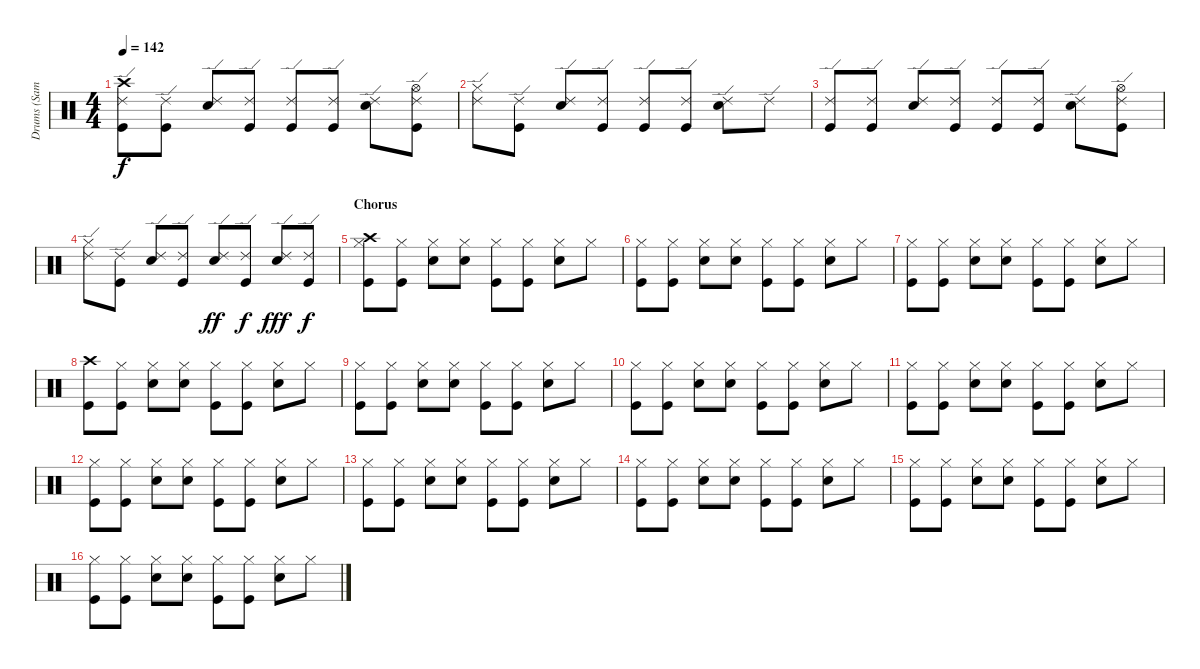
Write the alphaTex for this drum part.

\track ("Drums (Sam)" "Drums (Sam") {instrument percussion}
\staff {score}
\articulation defaults
\ts (4 4)
\tempo 142
\clef neutral
\ks c
("Crash high (hit)" "Ride (edge) 2" "Kick (hit)").8{dy f} ("Ride (edge) 2" "Kick (hit)").8 ("Ride (edge) 2" "Snare (hit) 2").8 ("Ride (edge) 2" "Kick (hit)").8 ("Ride (edge) 2" "Kick (hit)").8 ("Ride (edge) 2" "Kick (hit)").8 ("Ride (edge) 2" "Snare (hit) 2").8 ("Hi-Hat (open)" "Ride (edge) 2" "Kick (hit)").8 |
("Hi-Hat (closed)" "Ride (edge) 2").8 ("Ride (edge) 2" "Kick (hit)").8 ("Ride (edge) 2" "Snare (hit) 2").8 ("Ride (edge) 2" "Kick (hit)").8 ("Ride (edge) 2" "Kick (hit)").8 ("Ride (edge) 2" "Kick (hit)").8 ("Ride (edge) 2" "Snare (hit) 2").8 "Ride (edge) 2".8 |
("Ride (edge) 2" "Kick (hit)").8 ("Ride (edge) 2" "Kick (hit)").8 ("Ride (edge) 2" "Snare (hit) 2").8 ("Ride (edge) 2" "Kick (hit)").8 ("Ride (edge) 2" "Kick (hit)").8 ("Ride (edge) 2" "Kick (hit)").8 ("Ride (edge) 2" "Snare (hit) 2").8 ("Hi-Hat (open)" "Ride (edge) 2" "Kick (hit)").8 |
("Hi-Hat (closed)" "Ride (edge) 2").8 ("Ride (edge) 2" "Kick (hit)").8 ("Ride (edge) 2" "Snare (hit) 2").8 ("Ride (edge) 2" "Kick (hit)").8 ("Ride (edge) 2" "Snare (hit) 2").8{dy ff} ("Ride (edge) 2" "Kick (hit)").8{dy f} ("Ride (edge) 2" "Snare (hit) 2").8{dy fff} ("Ride (edge) 2" "Kick (hit)").8{dy f} |
\section ("" "Chorus")
("Crash high (hit)" "Hi-Hat (closed)" "Kick (hit)").8 ("Hi-Hat (closed)" "Kick (hit)").8 ("Hi-Hat (closed)" "Snare (hit) 2").8 ("Hi-Hat (closed)" "Snare (hit) 2").8 ("Hi-Hat (closed)" "Kick (hit)").8 ("Hi-Hat (closed)" "Kick (hit)").8 ("Hi-Hat (closed)" "Snare (hit) 2").8 "Hi-Hat (closed)".8 |
("Hi-Hat (closed)" "Kick (hit)").8 ("Hi-Hat (closed)" "Kick (hit)").8 ("Hi-Hat (closed)" "Snare (hit) 2").8 ("Hi-Hat (closed)" "Snare (hit) 2").8 ("Hi-Hat (closed)" "Kick (hit)").8 ("Hi-Hat (closed)" "Kick (hit)").8 ("Hi-Hat (closed)" "Snare (hit) 2").8 "Hi-Hat (closed)".8 |
("Hi-Hat (closed)" "Kick (hit)").8 ("Hi-Hat (closed)" "Kick (hit)").8 ("Hi-Hat (closed)" "Snare (hit) 2").8 ("Hi-Hat (closed)" "Snare (hit) 2").8 ("Hi-Hat (closed)" "Kick (hit)").8 ("Hi-Hat (closed)" "Kick (hit)").8 ("Hi-Hat (closed)" "Snare (hit) 2").8 "Hi-Hat (closed)".8 |
("Crash high (hit)" "Kick (hit)").8 ("Hi-Hat (closed)" "Kick (hit)").8 ("Hi-Hat (closed)" "Snare (hit) 2").8 ("Hi-Hat (closed)" "Snare (hit) 2").8 ("Hi-Hat (closed)" "Kick (hit)").8 ("Hi-Hat (closed)" "Kick (hit)").8 ("Hi-Hat (closed)" "Snare (hit) 2").8 "Hi-Hat (closed)".8 |
("Hi-Hat (closed)" "Kick (hit)").8 ("Hi-Hat (closed)" "Kick (hit)").8 ("Hi-Hat (closed)" "Snare (hit) 2").8 ("Hi-Hat (closed)" "Snare (hit) 2").8 ("Hi-Hat (closed)" "Kick (hit)").8 ("Hi-Hat (closed)" "Kick (hit)").8 ("Hi-Hat (closed)" "Snare (hit) 2").8 "Hi-Hat (closed)".8 |
("Hi-Hat (closed)" "Kick (hit)").8 ("Hi-Hat (closed)" "Kick (hit)").8 ("Hi-Hat (closed)" "Snare (hit) 2").8 ("Hi-Hat (closed)" "Snare (hit) 2").8 ("Hi-Hat (closed)" "Kick (hit)").8 ("Hi-Hat (closed)" "Kick (hit)").8 ("Hi-Hat (closed)" "Snare (hit) 2").8 "Hi-Hat (closed)".8 |
("Hi-Hat (closed)" "Kick (hit)").8 ("Hi-Hat (closed)" "Kick (hit)").8 ("Hi-Hat (closed)" "Snare (hit) 2").8 ("Hi-Hat (closed)" "Snare (hit) 2").8 ("Hi-Hat (closed)" "Kick (hit)").8 ("Hi-Hat (closed)" "Kick (hit)").8 ("Hi-Hat (closed)" "Snare (hit) 2").8 "Hi-Hat (closed)".8 |
("Hi-Hat (closed)" "Kick (hit)").8 ("Hi-Hat (closed)" "Kick (hit)").8 ("Hi-Hat (closed)" "Snare (hit) 2").8 ("Hi-Hat (closed)" "Snare (hit) 2").8 ("Hi-Hat (closed)" "Kick (hit)").8 ("Hi-Hat (closed)" "Kick (hit)").8 ("Hi-Hat (closed)" "Snare (hit) 2").8 "Hi-Hat (closed)".8 |
("Hi-Hat (closed)" "Kick (hit)").8 ("Hi-Hat (closed)" "Kick (hit)").8 ("Hi-Hat (closed)" "Snare (hit) 2").8 ("Hi-Hat (closed)" "Snare (hit) 2").8 ("Hi-Hat (closed)" "Kick (hit)").8 ("Hi-Hat (closed)" "Kick (hit)").8 ("Hi-Hat (closed)" "Snare (hit) 2").8 "Hi-Hat (closed)".8 |
("Hi-Hat (closed)" "Kick (hit)").8 ("Hi-Hat (closed)" "Kick (hit)").8 ("Hi-Hat (closed)" "Snare (hit) 2").8 ("Hi-Hat (closed)" "Snare (hit) 2").8 ("Hi-Hat (closed)" "Kick (hit)").8 ("Hi-Hat (closed)" "Kick (hit)").8 ("Hi-Hat (closed)" "Snare (hit) 2").8 "Hi-Hat (closed)".8 |
("Hi-Hat (closed)" "Kick (hit)").8 ("Hi-Hat (closed)" "Kick (hit)").8 ("Hi-Hat (closed)" "Snare (hit) 2").8 ("Hi-Hat (closed)" "Snare (hit) 2").8 ("Hi-Hat (closed)" "Kick (hit)").8 ("Hi-Hat (closed)" "Kick (hit)").8 ("Hi-Hat (closed)" "Snare (hit) 2").8 "Hi-Hat (closed)".8 |
("Hi-Hat (closed)" "Kick (hit)").8 ("Hi-Hat (closed)" "Kick (hit)").8 ("Hi-Hat (closed)" "Snare (hit) 2").8 ("Hi-Hat (closed)" "Snare (hit) 2").8 ("Hi-Hat (closed)" "Kick (hit)").8 ("Hi-Hat (closed)" "Kick (hit)").8 ("Hi-Hat (closed)" "Snare (hit) 2").8 "Hi-Hat (closed)".8
